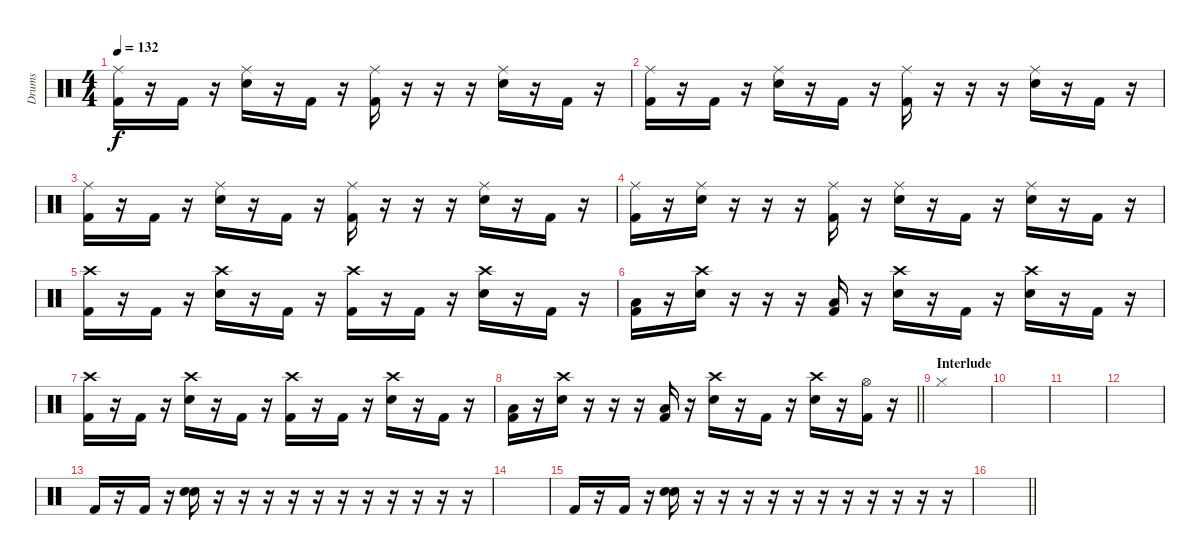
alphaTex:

\track ("Drums" "Drums") {instrument percussion}
\staff {score}
\articulation defaults
\ts (4 4)
\tempo 132
\clef neutral
\ks c
("Ride (middle)" "Kick (hit) 2").16{dy f} r.16 "Kick (hit) 2".16 r.16 ("Ride (middle)" "Snare (hit) 2").16 r.16 "Kick (hit) 2".16 r.16 ("Ride (middle)" "Kick (hit) 2").16 r.16 r.16 r.16 ("Ride (middle)" "Snare (hit) 2").16 r.16 "Kick (hit) 2".16 r.16 |
("Ride (middle)" "Kick (hit) 2").16 r.16 "Kick (hit) 2".16 r.16 ("Ride (middle)" "Snare (hit) 2").16 r.16 "Kick (hit) 2".16 r.16 ("Ride (middle)" "Kick (hit) 2").16 r.16 r.16 r.16 ("Ride (middle)" "Snare (hit) 2").16 r.16 "Kick (hit) 2".16 r.16 |
("Ride (middle)" "Kick (hit) 2").16 r.16 "Kick (hit) 2".16 r.16 ("Ride (middle)" "Snare (hit) 2").16 r.16 "Kick (hit) 2".16 r.16 ("Ride (middle)" "Kick (hit) 2").16 r.16 r.16 r.16 ("Ride (middle)" "Snare (hit) 2").16 r.16 "Kick (hit) 2".16 r.16 |
("Ride (middle)" "Kick (hit) 2").16 r.16 ("Ride (middle)" "Snare (hit) 2").16 r.16 r.16 r.16 ("Ride (middle)" "Kick (hit) 2").16 r.16 ("Ride (middle)" "Snare (hit) 2").16 r.16 "Kick (hit) 2".16 r.16 ("Ride (middle)" "Snare (hit) 2").16 r.16 "Kick (hit) 2".16 r.16 |
("Crash high (hit)" "Kick (hit) 2").16 r.16 "Kick (hit) 2".16 r.16 ("Crash high (hit)" "Snare (hit) 2").16 r.16 "Kick (hit) 2".16 r.16 ("Crash high (hit)" "Kick (hit) 2").16 r.16 "Kick (hit) 2".16 r.16 ("Crash high (hit)" "Snare (hit) 2").16 r.16 "Kick (hit) 2".16 r.16 |
("Low Tom (hit)" "Kick (hit) 2").16 r.16 ("Crash high (hit)" "Snare (hit) 2").16 r.16 r.16 r.16 ("Low Tom (hit)" "Kick (hit) 2").16 r.16 ("Crash high (hit)" "Snare (hit) 2").16 r.16 "Kick (hit) 2".16 r.16 ("Crash high (hit)" "Snare (hit) 2").16 r.16 "Kick (hit) 2".16 r.16 |
("Crash high (hit)" "Kick (hit) 2").16 r.16 "Kick (hit) 2".16 r.16 ("Crash high (hit)" "Snare (hit) 2").16 r.16 "Kick (hit) 2".16 r.16 ("Crash high (hit)" "Kick (hit) 2").16 r.16 "Kick (hit) 2".16 r.16 ("Crash high (hit)" "Snare (hit) 2").16 r.16 "Kick (hit) 2".16 r.16 |
\barLineRight lightlight
("Low Tom (hit)" "Kick (hit) 2").16 r.16 ("Crash high (hit)" "Snare (hit) 2").16 r.16 r.16 r.16 ("Low Tom (hit)" "Kick (hit) 2").16 r.16 ("Crash high (hit)" "Snare (hit) 2").16 r.16 "Kick (hit) 2".16 r.16 ("Crash high (hit)" "Snare (hit) 2").16 r.16 ("Hi-Hat (open)" "Kick (hit) 2").16 r.16 |
\section ("" "Interlude")
"Hi-Hat (closed)".1 |
|
|
|
"Kick (hit) 2".16 r.16 "Kick (hit) 2".16 r.16 ("Snare (hit) 2" "Snare (hit) 2").16 r.16 r.16 r.16 r.16 r.16 r.16 r.16 r.16 r.16 r.16 r.16 |
|
"Kick (hit) 2".16 r.16 "Kick (hit) 2".16 r.16 ("Snare (hit) 2" "Snare (hit) 2").16 r.16 r.16 r.16 r.16 r.16 r.16 r.16 r.16 r.16 r.16 r.16 |
\barLineRight lightlight
